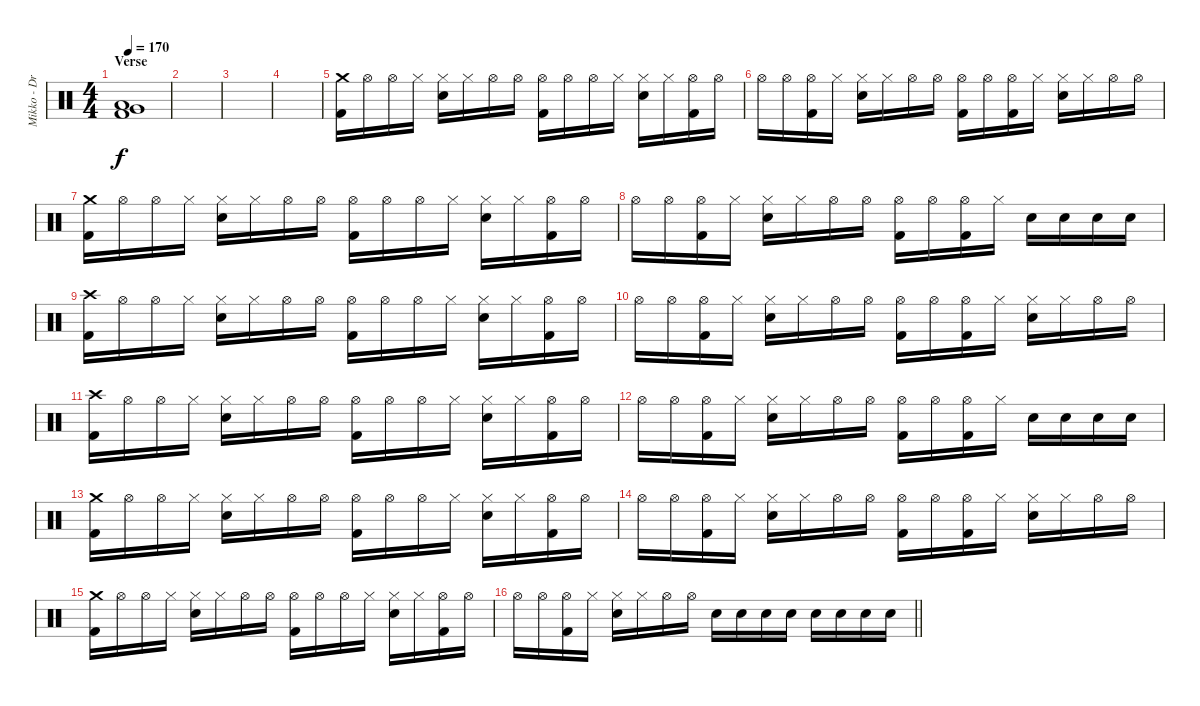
\track ("Mikko - Drums" "Mikko - Dr") {instrument percussion}
\staff {score}
\articulation defaults
\ts (4 4)
\section ("" "Verse")
\tempo 170
\clef neutral
\ks c
("Low Tom (hit)" "Very Low Tom (hit)" "Kick (hit) 2").1{dy f} |
|
|
|
("Crash medium (hit)" "Kick (hit) 2").16 "Hi-Hat (open)".16 "Hi-Hat (open)".16 "Hi-Hat (closed)".16 ("Hi-Hat (closed)" "Snare (hit) 2").16 "Hi-Hat (closed)".16 "Hi-Hat (open)".16 "Hi-Hat (open)".16 ("Hi-Hat (open)" "Kick (hit) 2").16 "Hi-Hat (open)".16 "Hi-Hat (open)".16 "Hi-Hat (closed)".16 ("Hi-Hat (closed)" "Snare (hit) 2").16 "Hi-Hat (closed)".16 ("Hi-Hat (open)" "Kick (hit) 2").16 "Hi-Hat (open)".16 |
"Hi-Hat (open)".16 "Hi-Hat (open)".16 ("Hi-Hat (open)" "Kick (hit) 2").16 "Hi-Hat (closed)".16 ("Hi-Hat (closed)" "Snare (hit) 2").16 "Hi-Hat (closed)".16 "Hi-Hat (open)".16 "Hi-Hat (open)".16 ("Hi-Hat (open)" "Kick (hit) 2").16 "Hi-Hat (open)".16 ("Hi-Hat (open)" "Kick (hit) 2").16 "Hi-Hat (closed)".16 ("Hi-Hat (closed)" "Snare (hit) 2").16 "Hi-Hat (closed)".16 "Hi-Hat (open)".16 "Hi-Hat (open)".16 |
("Crash medium (hit)" "Kick (hit) 2").16 "Hi-Hat (open)".16 "Hi-Hat (open)".16 "Hi-Hat (closed)".16 ("Hi-Hat (closed)" "Snare (hit) 2").16 "Hi-Hat (closed)".16 "Hi-Hat (open)".16 "Hi-Hat (open)".16 ("Hi-Hat (open)" "Kick (hit) 2").16 "Hi-Hat (open)".16 "Hi-Hat (open)".16 "Hi-Hat (closed)".16 ("Hi-Hat (closed)" "Snare (hit) 2").16 "Hi-Hat (closed)".16 ("Hi-Hat (open)" "Kick (hit) 2").16 "Hi-Hat (open)".16 |
"Hi-Hat (open)".16 "Hi-Hat (open)".16 ("Hi-Hat (open)" "Kick (hit) 2").16 "Hi-Hat (closed)".16 ("Hi-Hat (closed)" "Snare (hit) 2").16 "Hi-Hat (closed)".16 "Hi-Hat (open)".16 "Hi-Hat (open)".16 ("Hi-Hat (open)" "Kick (hit) 2").16 "Hi-Hat (open)".16 ("Hi-Hat (open)" "Kick (hit) 2").16 "Hi-Hat (closed)".16 "Snare (hit) 2".16 "Snare (hit) 2".16 "Snare (hit) 2".16 "Snare (hit) 2".16 |
("Crash high (hit)" "Kick (hit) 2").16 "Hi-Hat (open)".16 "Hi-Hat (open)".16 "Hi-Hat (closed)".16 ("Hi-Hat (closed)" "Snare (hit) 2").16 "Hi-Hat (closed)".16 "Hi-Hat (open)".16 "Hi-Hat (open)".16 ("Hi-Hat (open)" "Kick (hit) 2").16 "Hi-Hat (open)".16 "Hi-Hat (open)".16 "Hi-Hat (closed)".16 ("Hi-Hat (closed)" "Snare (hit) 2").16 "Hi-Hat (closed)".16 ("Hi-Hat (open)" "Kick (hit) 2").16 "Hi-Hat (open)".16 |
"Hi-Hat (open)".16 "Hi-Hat (open)".16 ("Hi-Hat (open)" "Kick (hit) 2").16 "Hi-Hat (closed)".16 ("Hi-Hat (closed)" "Snare (hit) 2").16 "Hi-Hat (closed)".16 "Hi-Hat (open)".16 "Hi-Hat (open)".16 ("Hi-Hat (open)" "Kick (hit) 2").16 "Hi-Hat (open)".16 ("Hi-Hat (open)" "Kick (hit) 2").16 "Hi-Hat (closed)".16 ("Hi-Hat (closed)" "Snare (hit) 2").16 "Hi-Hat (closed)".16 "Hi-Hat (open)".16 "Hi-Hat (open)".16 |
("Crash high (hit)" "Kick (hit) 2").16 "Hi-Hat (open)".16 "Hi-Hat (open)".16 "Hi-Hat (closed)".16 ("Hi-Hat (closed)" "Snare (hit) 2").16 "Hi-Hat (closed)".16 "Hi-Hat (open)".16 "Hi-Hat (open)".16 ("Hi-Hat (open)" "Kick (hit) 2").16 "Hi-Hat (open)".16 "Hi-Hat (open)".16 "Hi-Hat (closed)".16 ("Hi-Hat (closed)" "Snare (hit) 2").16 "Hi-Hat (closed)".16 ("Hi-Hat (open)" "Kick (hit) 2").16 "Hi-Hat (open)".16 |
"Hi-Hat (open)".16 "Hi-Hat (open)".16 ("Hi-Hat (open)" "Kick (hit) 2").16 "Hi-Hat (closed)".16 ("Hi-Hat (closed)" "Snare (hit) 2").16 "Hi-Hat (closed)".16 "Hi-Hat (open)".16 "Hi-Hat (open)".16 ("Hi-Hat (open)" "Kick (hit) 2").16 "Hi-Hat (open)".16 ("Hi-Hat (open)" "Kick (hit) 2").16 "Hi-Hat (closed)".16 "Snare (hit) 2".16 "Snare (hit) 2".16 "Snare (hit) 2".16 "Snare (hit) 2".16 |
("Crash medium (hit)" "Kick (hit) 2").16 "Hi-Hat (open)".16 "Hi-Hat (open)".16 "Hi-Hat (closed)".16 ("Hi-Hat (closed)" "Snare (hit) 2").16 "Hi-Hat (closed)".16 "Hi-Hat (open)".16 "Hi-Hat (open)".16 ("Hi-Hat (open)" "Kick (hit) 2").16 "Hi-Hat (open)".16 "Hi-Hat (open)".16 "Hi-Hat (closed)".16 ("Hi-Hat (closed)" "Snare (hit) 2").16 "Hi-Hat (closed)".16 ("Hi-Hat (open)" "Kick (hit) 2").16 "Hi-Hat (open)".16 |
"Hi-Hat (open)".16 "Hi-Hat (open)".16 ("Hi-Hat (open)" "Kick (hit) 2").16 "Hi-Hat (closed)".16 ("Hi-Hat (closed)" "Snare (hit) 2").16 "Hi-Hat (closed)".16 "Hi-Hat (open)".16 "Hi-Hat (open)".16 ("Hi-Hat (open)" "Kick (hit) 2").16 "Hi-Hat (open)".16 ("Hi-Hat (open)" "Kick (hit) 2").16 "Hi-Hat (closed)".16 ("Hi-Hat (closed)" "Snare (hit) 2").16 "Hi-Hat (closed)".16 "Hi-Hat (open)".16 "Hi-Hat (open)".16 |
("Crash medium (hit)" "Kick (hit) 2").16 "Hi-Hat (open)".16 "Hi-Hat (open)".16 "Hi-Hat (closed)".16 ("Hi-Hat (closed)" "Snare (hit) 2").16 "Hi-Hat (closed)".16 "Hi-Hat (open)".16 "Hi-Hat (open)".16 ("Hi-Hat (open)" "Kick (hit) 2").16 "Hi-Hat (open)".16 "Hi-Hat (open)".16 "Hi-Hat (closed)".16 ("Hi-Hat (closed)" "Snare (hit) 2").16 "Hi-Hat (closed)".16 ("Hi-Hat (open)" "Kick (hit) 2").16 "Hi-Hat (open)".16 |
\barLineRight lightlight "Hi-Hat (open)".16 "Hi-Hat (open)".16
("Hi-Hat (open)" "Kick (hit) 2").16 "Hi-Hat (closed)".16 ("Hi-Hat (closed)" "Snare (hit) 2").16 "Hi-Hat (closed)".16 "Hi-Hat (open)".16 "Hi-Hat (open)".16 "Snare (hit) 2".16 "Snare (hit) 2".16 "Snare (hit) 2".16 "Snare (hit) 2".16 "Snare (hit) 2".16 "Snare (hit) 2".16 "Snare (hit) 2".16 "Snare (hit) 2".16
